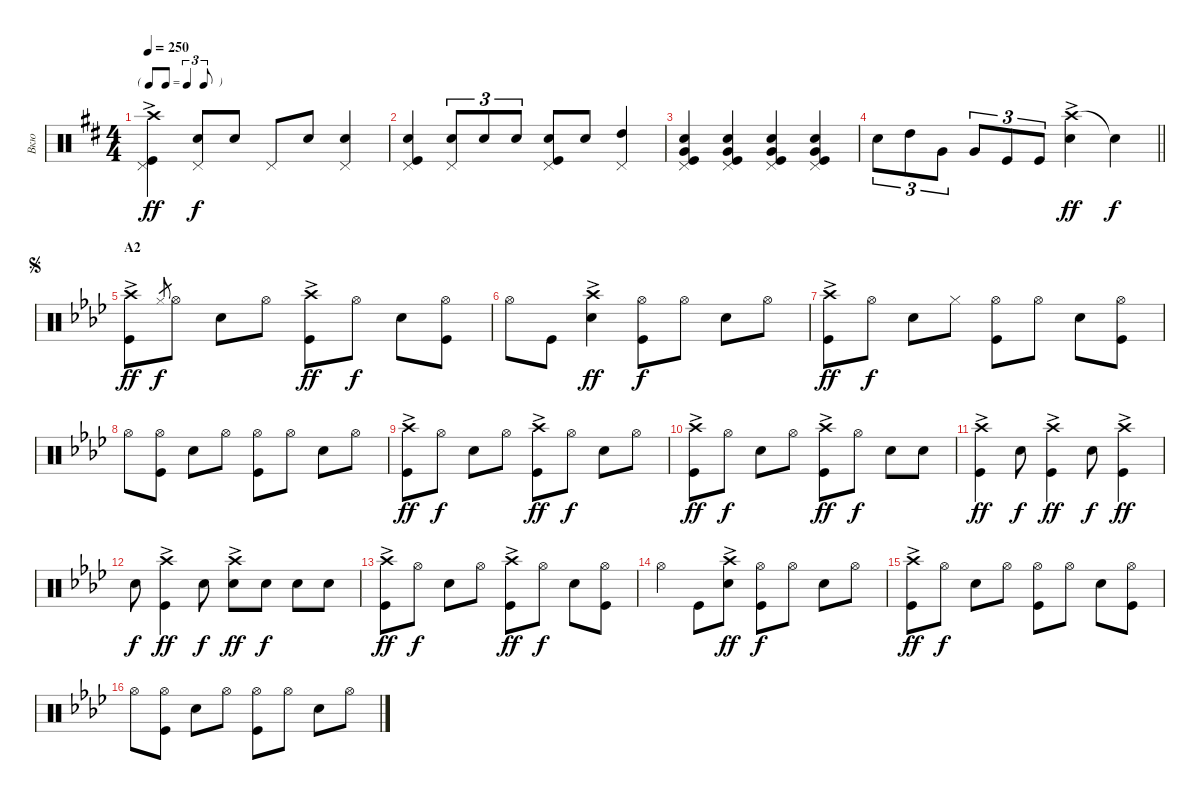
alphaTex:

\track ("Вкю" "Вкю") {instrument percussion}
\staff {score}
\articulation defaults
\ts (4 4)
\tf triplet8th
\tempo 250
\clef neutral
\ks d
("Crash high (hit)"{ac} "Kick (hit)"{ac} "Pedal Hi-Hat (hit)"{ac}).4{dy ff} ("Snare (hit) 2" "Pedal Hi-Hat (hit)").8{dy f} "Snare (hit) 2".8 "Pedal Hi-Hat (hit)".8 "Snare (hit) 2".8 ("Snare (hit) 2" "Pedal Hi-Hat (hit)").4 |
("Snare (hit) 2" "Kick (hit)" "Pedal Hi-Hat (hit)").4 ("Snare (hit) 2" "Pedal Hi-Hat (hit)").8{tu (3 2)} "Snare (hit) 2".8{tu (3 2)} "Snare (hit) 2".8{tu (3 2)} ("Snare (hit) 2" "Kick (hit)" "Pedal Hi-Hat (hit)").8 "Snare (hit) 2".8 ("High Tom (hit)" "Pedal Hi-Hat (hit)").4 |
("Very Low Tom (hit)" "Snare (hit) 2" "Kick (hit)" "Pedal Hi-Hat (hit)").4 ("Very Low Tom (hit)" "Snare (hit) 2" "Kick (hit)" "Pedal Hi-Hat (hit)").4 ("Very Low Tom (hit)" "Snare (hit) 2" "Kick (hit)" "Pedal Hi-Hat (hit)").4 ("Very Low Tom (hit)" "Snare (hit) 2" "Kick (hit)" "Pedal Hi-Hat (hit)").4 |
\barLineRight lightlight "Snare (hit) 2".8{tu (3 2)} "High Tom (hit)".8{tu (3 2)} "Very Low Tom (hit)".8{tu (3 2)} "Very Low Tom (hit)".8{tu (3 2)} "Kick (hit)".8{tu (3 2)} "Kick (hit)".8{tu (3 2)}
("Crash high (hit)"{ac} "Snare (hit) 2"{ac}).4{dy ff} "Snare (hit)"{t}.4{dy f} |
\section ("" "A2")
\jump segno
\ks ab
("Crash high (hit)"{ac} "Kick (hit)"{ac}).8{dy ff} "Hi-Hat (closed)".8{gr dy f} "Hi-Hat (open)".8 "Snare (hit) 2".8 "Hi-Hat (open)".8 ("Crash high (hit)"{ac} "Kick (hit)"{ac}).8{dy ff} "Hi-Hat (open)".8{dy f} "Snare (hit) 2".8 ("Hi-Hat (open)" "Kick (hit)").8 |
"Hi-Hat (open)".8 "Kick (hit)".8 ("Crash high (hit)"{ac} "Snare (hit) 2"{ac}).4{dy ff} ("Hi-Hat (open)" "Kick (hit)").8{dy f} "Hi-Hat (open)".8 "Snare (hit) 2".8 "Hi-Hat (open)".8 |
("Crash high (hit)"{ac} "Kick (hit)"{ac}).8{dy ff} "Hi-Hat (open)".8{dy f} "Snare (hit) 2".8 "Hi-Hat (closed)".8 ("Hi-Hat (open)" "Kick (hit)").8 "Hi-Hat (open)".8 "Snare (hit) 2".8 ("Hi-Hat (open)" "Kick (hit)").8 |
"Hi-Hat (open)".8 ("Hi-Hat (open)" "Kick (hit)").8 "Snare (hit) 2".8 "Hi-Hat (open)".8 ("Hi-Hat (open)" "Kick (hit)").8 "Hi-Hat (open)".8 "Snare (hit) 2".8 "Hi-Hat (open)".8 |
("Crash high (hit)"{ac} "Kick (hit)"{ac}).8{dy ff} "Hi-Hat (open)".8{dy f} "Snare (hit) 2".8 "Hi-Hat (open)".8 ("Crash high (hit)"{ac} "Kick (hit)"{ac}).8{dy ff} "Hi-Hat (open)".8{dy f} "Snare (hit) 2".8 "Hi-Hat (open)".8 |
("Crash high (hit)"{ac} "Kick (hit)"{ac}).8{dy ff} "Hi-Hat (open)".8{dy f} "Snare (hit) 2".8 "Hi-Hat (open)".8 ("Crash high (hit)"{ac} "Kick (hit)"{ac}).8{dy ff} "Hi-Hat (open)".8{dy f} "Snare (hit) 2".8 "Snare (hit) 2".8 |
("Crash high (hit)"{ac} "Kick (hit)"{ac}).4{dy ff} "Snare (hit) 2".8{dy f} ("Crash high (hit)"{ac} "Kick (hit)"{ac}).4{dy ff} "Snare (hit) 2".8{dy f} ("Crash high (hit)"{ac} "Kick (hit)"{ac}).4{dy ff} |
"Snare (hit) 2".8{dy f} ("Crash high (hit)"{ac} "Kick (hit)"{ac}).4{dy ff} "Snare (hit) 2".8{dy f} ("Crash high (hit)"{ac} "Snare (hit) 2"{ac}).8{dy ff} "Snare (hit) 2".8{dy f} "Snare (hit) 2".8 "Snare (hit) 2".8 |
("Crash high (hit)"{ac} "Kick (hit)"{ac}).8{dy ff} "Hi-Hat (open)".8{dy f} "Snare (hit) 2".8 "Hi-Hat (open)".8 ("Crash high (hit)"{ac} "Kick (hit)"{ac}).8{dy ff} "Hi-Hat (open)".8{dy f} "Snare (hit) 2".8 ("Hi-Hat (open)" "Kick (hit)").8 |
"Hi-Hat (open)".4 "Kick (hit)".8 ("Crash high (hit)"{ac} "Snare (hit) 2"{ac}).8{dy ff} ("Hi-Hat (open)" "Kick (hit)").8{dy f} "Hi-Hat (open)".8 "Snare (hit) 2".8 "Hi-Hat (open)".8 |
("Crash high (hit)"{ac} "Kick (hit)"{ac}).8{dy ff} "Hi-Hat (open)".8{dy f} "Snare (hit) 2".8 "Hi-Hat (open)".8 ("Hi-Hat (open)" "Kick (hit)").8 "Hi-Hat (open)".8 "Snare (hit) 2".8 ("Hi-Hat (open)" "Kick (hit)").8 |
"Hi-Hat (open)".8 ("Hi-Hat (open)" "Kick (hit)").8 "Snare (hit) 2".8 "Hi-Hat (open)".8 ("Hi-Hat (open)" "Kick (hit)").8 "Hi-Hat (open)".8 "Snare (hit) 2".8 "Hi-Hat (open)".8
